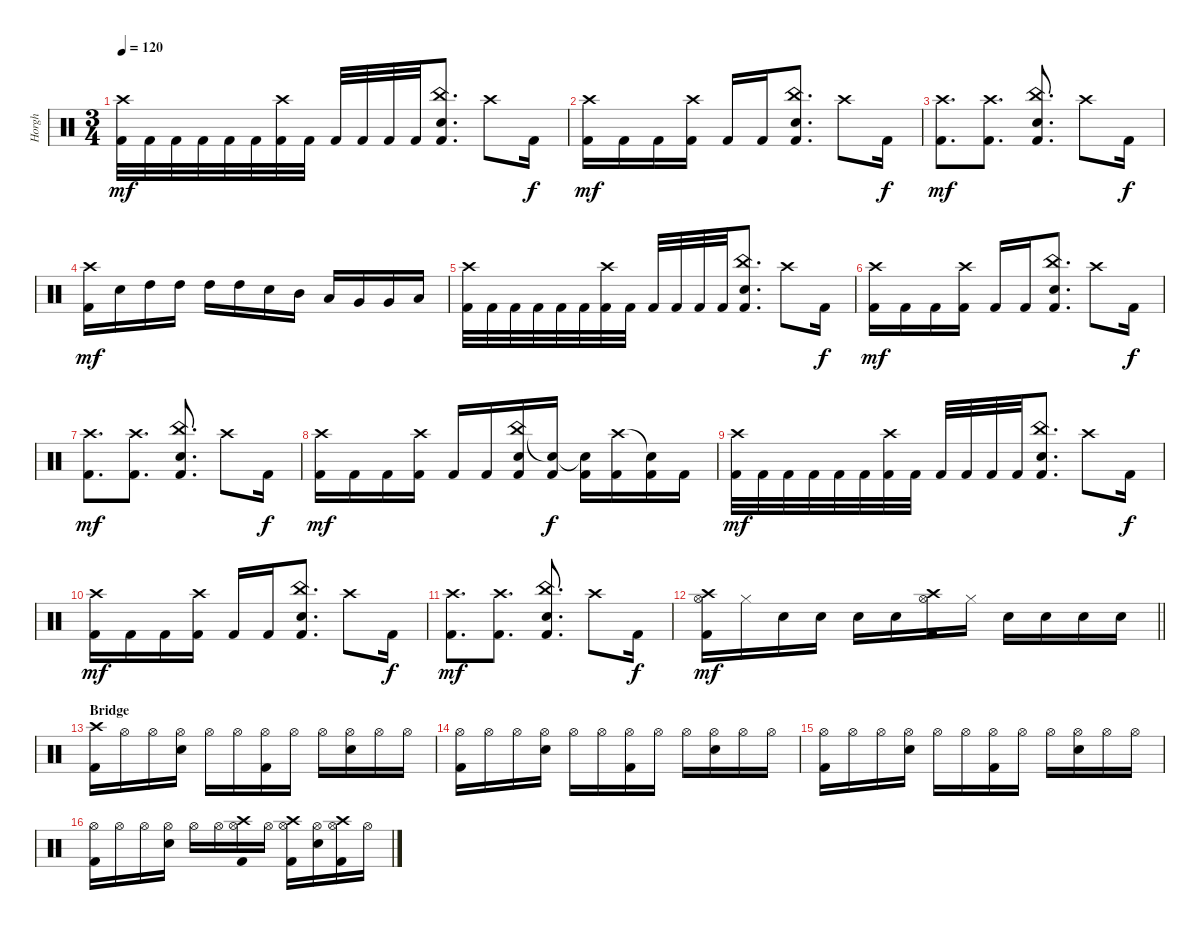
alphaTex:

\track ("Horgh" "Horgh") {instrument percussion}
\staff {score}
\articulation defaults
\ts (3 4)
\tempo 120
\clef neutral
\ks c
("Crash high (hit)" "Kick (hit) 2").32{dy mf} "Kick (hit) 2".32 "Kick (hit) 2".32 "Kick (hit) 2".32 "Kick (hit) 2".32 "Kick (hit) 2".32 ("Crash high (hit)" "Kick (hit) 2").32 "Kick (hit) 2".32 "Kick (hit) 2".32 "Kick (hit) 2".32 "Kick (hit) 2".32 "Kick (hit) 2".32 ("China (hit)" "Snare (hit) 2" "Kick (hit) 2").8{d} "Crash high (hit)".8 "Kick (hit) 2".16{dy f} |
("Crash high (hit)" "Kick (hit) 2").16{dy mf} "Kick (hit) 2".16 "Kick (hit) 2".16 ("Crash high (hit)" "Kick (hit) 2").16 "Kick (hit) 2".16 "Kick (hit) 2".16 ("China (hit)" "Snare (hit) 2" "Kick (hit) 2").8{d} "Crash high (hit)".8 "Kick (hit) 2".16{dy f} |
("Crash high (hit)" "Kick (hit) 2").8{d dy mf} ("Crash high (hit)" "Kick (hit) 2").8{d} ("China (hit)" "Snare (hit) 2" "Kick (hit) 2").8{d} "Crash high (hit)".8 "Kick (hit) 2".16{dy f} |
("Crash high (hit)" "Kick (hit) 2").16{dy mf} "Snare (hit) 2".16 "High Tom (hit)".16 "High Tom (hit)".16 "High Tom (hit)".16 "High Tom (hit)".16 "Snare (hit) 2".16 "Mid Tom (hit)".16 "Low Tom (hit)".16 "Very Low Tom (hit)".16 "Very Low Tom (hit)".16 "Low Floor Tom (hit)".16 |
("Crash high (hit)" "Kick (hit) 2").32 "Kick (hit) 2".32 "Kick (hit) 2".32 "Kick (hit) 2".32 "Kick (hit) 2".32 "Kick (hit) 2".32 ("Crash high (hit)" "Kick (hit) 2").32 "Kick (hit) 2".32 "Kick (hit) 2".32 "Kick (hit) 2".32 "Kick (hit) 2".32 "Kick (hit) 2".32 ("China (hit)" "Snare (hit) 2" "Kick (hit) 2").8{d} "Crash high (hit)".8 "Kick (hit) 2".16{dy f} |
("Crash high (hit)" "Kick (hit) 2").16{dy mf} "Kick (hit) 2".16 "Kick (hit) 2".16 ("Crash high (hit)" "Kick (hit) 2").16 "Kick (hit) 2".16 "Kick (hit) 2".16 ("China (hit)" "Snare (hit) 2" "Kick (hit) 2").8{d} "Crash high (hit)".8 "Kick (hit) 2".16{dy f} |
("Crash high (hit)" "Kick (hit) 2").8{d dy mf} ("Crash high (hit)" "Kick (hit) 2").8{d} ("China (hit)" "Snare (hit) 2" "Kick (hit) 2").8{d} "Crash high (hit)".8 "Kick (hit) 2".16{dy f} |
("Crash high (hit)" "Kick (hit) 2").16{dy mf} "Kick (hit) 2".16 "Kick (hit) 2".16 ("Crash high (hit)" "Kick (hit) 2").16 "Kick (hit) 2".16 "Kick (hit) 2".16 ("China (hit)" "Snare (hit) 2" "Kick (hit) 2").16 ("Snare (hit)"{t} "Kick (hit) 2").16{dy f} ("Snare (hit)"{t} "Kick (hit) 2").16 ("Crash high (hit)" "Kick (hit) 2").16 ("Snare (hit)"{t} "Kick (hit) 2").16 "Kick (hit) 2".16 |
("Crash high (hit)" "Kick (hit) 2").32{dy mf} "Kick (hit) 2".32 "Kick (hit) 2".32 "Kick (hit) 2".32 "Kick (hit) 2".32 "Kick (hit) 2".32 ("Crash high (hit)" "Kick (hit) 2").32 "Kick (hit) 2".32 "Kick (hit) 2".32 "Kick (hit) 2".32 "Kick (hit) 2".32 "Kick (hit) 2".32 ("China (hit)" "Snare (hit) 2" "Kick (hit) 2").8{d} "Crash high (hit)".8 "Kick (hit) 2".16{dy f} |
("Crash high (hit)" "Kick (hit) 2").16{dy mf} "Kick (hit) 2".16 "Kick (hit) 2".16 ("Crash high (hit)" "Kick (hit) 2").16 "Kick (hit) 2".16 "Kick (hit) 2".16 ("China (hit)" "Snare (hit) 2" "Kick (hit) 2").8{d} "Crash high (hit)".8 "Kick (hit) 2".16{dy f} |
("Crash high (hit)" "Kick (hit) 2").8{d dy mf} ("Crash high (hit)" "Kick (hit) 2").8{d} ("China (hit)" "Snare (hit) 2" "Kick (hit) 2").8{d} "Crash high (hit)".8 "Kick (hit) 2".16{dy f} |
\barLineRight lightlight
("Crash high (hit)" "Hi-Hat (open)" "Kick (hit) 2").16{dy mf} "Hi-Hat (closed)".16 "Snare (hit) 2".16 "Snare (hit) 2".16 "Snare (hit) 2".16 "Snare (hit) 2".16 ("Crash high (hit)" "Hi-Hat (open)" "Kick (hit) 2").16 "Hi-Hat (closed)".16 "Snare (hit) 2".16 "Snare (hit) 2".16 "Snare (hit) 2".16 "Snare (hit) 2".16 |
\section ("" "Bridge")
("Crash high (hit)" "Kick (hit) 2").16 "Hi-Hat (open)".16 "Hi-Hat (open)".16 ("Snare (hit) 2" "Hi-Hat (open)").16 "Hi-Hat (open)".16 "Hi-Hat (open)".16 ("Hi-Hat (open)" "Kick (hit) 2").16 "Hi-Hat (open)".16 "Hi-Hat (open)".16 ("Snare (hit) 2" "Hi-Hat (open)").16 "Hi-Hat (open)".16 "Hi-Hat (open)".16 |
("Hi-Hat (open)" "Kick (hit) 2").16 "Hi-Hat (open)".16 "Hi-Hat (open)".16 ("Snare (hit) 2" "Hi-Hat (open)").16 "Hi-Hat (open)".16 "Hi-Hat (open)".16 ("Hi-Hat (open)" "Kick (hit) 2").16 "Hi-Hat (open)".16 "Hi-Hat (open)".16 ("Snare (hit) 2" "Hi-Hat (open)").16 "Hi-Hat (open)".16 "Hi-Hat (open)".16 |
("Hi-Hat (open)" "Kick (hit) 2").16 "Hi-Hat (open)".16 "Hi-Hat (open)".16 ("Snare (hit) 2" "Hi-Hat (open)").16 "Hi-Hat (open)".16 "Hi-Hat (open)".16 ("Hi-Hat (open)" "Kick (hit) 2").16 "Hi-Hat (open)".16 "Hi-Hat (open)".16 ("Snare (hit) 2" "Hi-Hat (open)").16 "Hi-Hat (open)".16 "Hi-Hat (open)".16 |
("Hi-Hat (open)" "Kick (hit) 2").16 "Hi-Hat (open)".16 "Hi-Hat (open)".16 ("Snare (hit) 2" "Hi-Hat (open)").16 "Hi-Hat (open)".16 "Hi-Hat (open)".16 ("Crash high (hit)" "Hi-Hat (open)" "Kick (hit) 2").16 "Hi-Hat (open)".16 ("Crash high (hit)" "Hi-Hat (open)" "Kick (hit) 2").16 ("Snare (hit) 2" "Hi-Hat (open)").16 ("Crash high (hit)" "Hi-Hat (open)" "Kick (hit) 2").16 "Hi-Hat (open)".16
